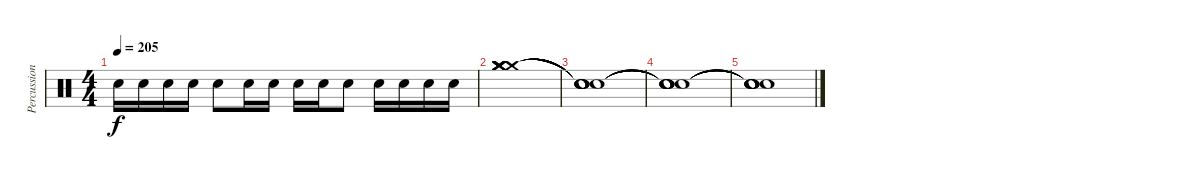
\track ("Percussion" "Percussion") {instrument percussion}
\staff {score}
\articulation defaults
\ts (4 4)
\tempo 205
\clef neutral
\ks c "Snare (hit) 2".16{dy f} "Snare (hit) 2".16 "Snare (hit) 2".16 "Snare (hit) 2".16 "Snare (hit) 2".8 "Snare (hit) 2".16 "Snare (hit) 2".16 "Snare (hit) 2".16 "Snare (hit) 2".16 "Snare (hit) 2".8 "Snare (hit) 2".16 "Snare (hit) 2".16 "Snare (hit) 2".16 "Snare (hit) 2".16
|
("Crash medium (hit)" "Crash medium (hit)" "Crash medium (hit)" "Crash medium (hit)" "Crash medium (hit)" "Crash medium (hit)").1 |
("Snare (hit)"{t} "Snare (hit)"{t} "Snare (hit)"{t} "Snare (hit)"{t} "Snare (hit)"{t} "Snare (hit)"{t}).1 |
("Snare (hit)"{t} "Snare (hit)"{t} "Snare (hit)"{t} "Snare (hit)"{t} "Snare (hit)"{t} "Snare (hit)"{t}).1 |
("Snare (hit)"{t} "Snare (hit)"{t} "Snare (hit)"{t} "Snare (hit)"{t} "Snare (hit)"{t} "Snare (hit)"{t}).1
